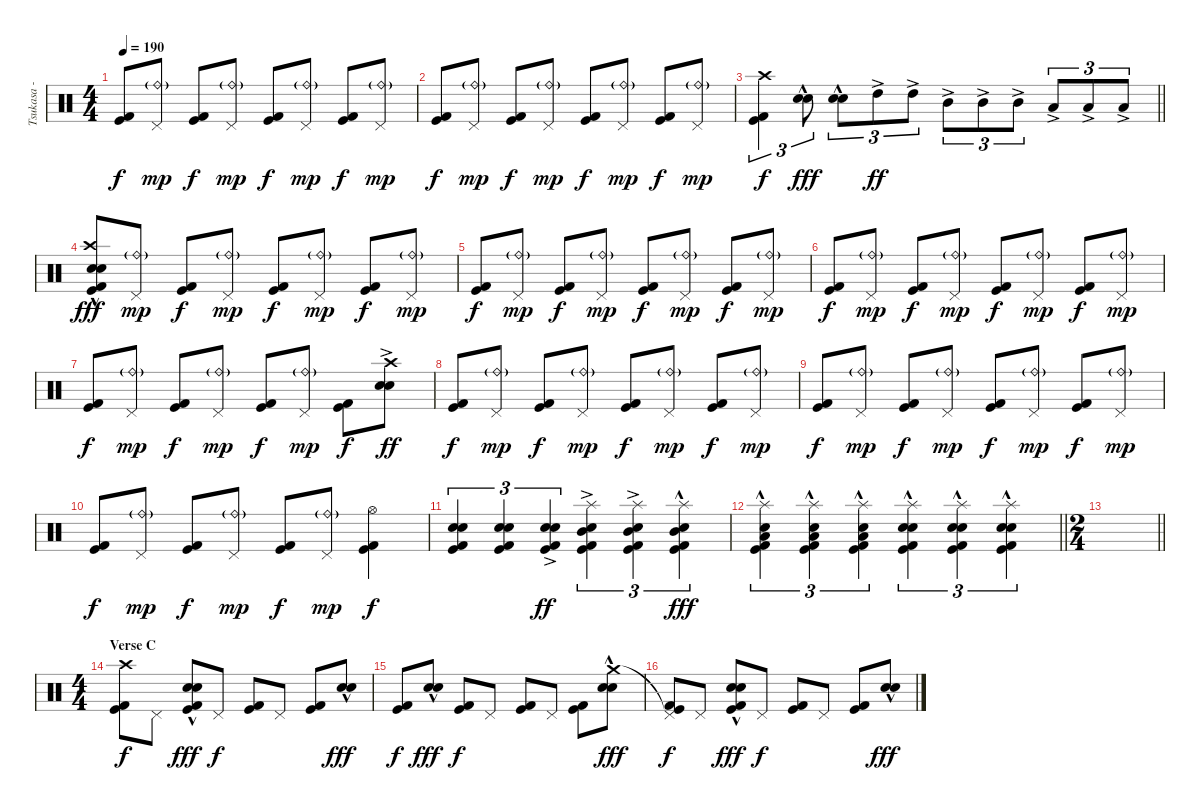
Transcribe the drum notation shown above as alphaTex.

\track ("Tsukasa - Drums" "Tsukasa - ") {instrument percussion}
\staff {score}
\articulation defaults
\ts (4 4)
\tempo 190
\clef neutral
\ks c
("Kick (hit)" "Kick (hit) 2").8{dy f} ("Ride (bell)"{g} "Pedal Hi-Hat (hit)").8{dy mp} ("Kick (hit)" "Kick (hit) 2").8{dy f} ("Ride (bell)"{g} "Pedal Hi-Hat (hit)").8{dy mp} ("Kick (hit)" "Kick (hit) 2").8{dy f} ("Ride (bell)"{g} "Pedal Hi-Hat (hit)").8{dy mp} ("Kick (hit)" "Kick (hit) 2").8{dy f} ("Ride (bell)"{g} "Pedal Hi-Hat (hit)").8{dy mp} |
("Kick (hit)" "Kick (hit) 2").8{dy f} ("Ride (bell)"{g} "Pedal Hi-Hat (hit)").8{dy mp} ("Kick (hit)" "Kick (hit) 2").8{dy f} ("Ride (bell)"{g} "Pedal Hi-Hat (hit)").8{dy mp} ("Kick (hit)" "Kick (hit) 2").8{dy f} ("Ride (bell)"{g} "Pedal Hi-Hat (hit)").8{dy mp} ("Kick (hit)" "Kick (hit) 2").8{dy f} ("Ride (bell)"{g} "Pedal Hi-Hat (hit)").8{dy mp} |
\barLineRight lightlight
("Crash high (hit)" "Kick (hit)" "Kick (hit) 2").4{tu (3 2) dy f} ("Electric Snare (hit)"{hac} "Snare (hit) 2").8{tu (3 2) dy fff} ("Electric Snare (hit)"{hac} "Snare (hit) 2").8{tu (3 2)} "High Tom (hit)"{ac}.8{tu (3 2) dy ff} "High Tom (hit)"{ac}.8{tu (3 2)} "Mid Tom (hit)"{ac}.8{tu (3 2)} "Mid Tom (hit)"{ac}.8{tu (3 2)} "Mid Tom (hit)"{ac}.8{tu (3 2)} "Low Tom (hit)"{ac}.8{tu (3 2)} "Low Tom (hit)"{ac}.8{tu (3 2)} "Low Tom (hit)"{ac}.8{tu (3 2)} |
\section ("" "")
("Crash high (hit)" "Electric Snare (hit)"{hac} "Snare (hit) 2" "Kick (hit)" "Kick (hit) 2").8{dy fff} ("Ride (bell)"{g} "Pedal Hi-Hat (hit)").8{dy mp} ("Kick (hit)" "Kick (hit) 2").8{dy f} ("Ride (bell)"{g} "Pedal Hi-Hat (hit)").8{dy mp} ("Kick (hit)" "Kick (hit) 2").8{dy f} ("Ride (bell)"{g} "Pedal Hi-Hat (hit)").8{dy mp} ("Kick (hit)" "Kick (hit) 2").8{dy f} ("Ride (bell)"{g} "Pedal Hi-Hat (hit)").8{dy mp} |
("Kick (hit)" "Kick (hit) 2").8{dy f} ("Ride (bell)"{g} "Pedal Hi-Hat (hit)").8{dy mp} ("Kick (hit)" "Kick (hit) 2").8{dy f} ("Ride (bell)"{g} "Pedal Hi-Hat (hit)").8{dy mp} ("Kick (hit)" "Kick (hit) 2").8{dy f} ("Ride (bell)"{g} "Pedal Hi-Hat (hit)").8{dy mp} ("Kick (hit)" "Kick (hit) 2").8{dy f} ("Ride (bell)"{g} "Pedal Hi-Hat (hit)").8{dy mp} |
("Kick (hit)" "Kick (hit) 2").8{dy f} ("Ride (bell)"{g} "Pedal Hi-Hat (hit)").8{dy mp} ("Kick (hit)" "Kick (hit) 2").8{dy f} ("Ride (bell)"{g} "Pedal Hi-Hat (hit)").8{dy mp} ("Kick (hit)" "Kick (hit) 2").8{dy f} ("Ride (bell)"{g} "Pedal Hi-Hat (hit)").8{dy mp} ("Kick (hit)" "Kick (hit) 2").8{dy f} ("Ride (bell)"{g} "Pedal Hi-Hat (hit)").8{dy mp} |
("Kick (hit)" "Kick (hit) 2").8{dy f} ("Ride (bell)"{g} "Pedal Hi-Hat (hit)").8{dy mp} ("Kick (hit)" "Kick (hit) 2").8{dy f} ("Ride (bell)"{g} "Pedal Hi-Hat (hit)").8{dy mp} ("Kick (hit)" "Kick (hit) 2").8{dy f} ("Ride (bell)"{g} "Pedal Hi-Hat (hit)").8{dy mp} ("Kick (hit)" "Kick (hit) 2").8{dy f} ("Crash high (hit)" "Electric Snare (hit)"{ac} "Snare (hit) 2").8{dy ff} |
("Kick (hit)" "Kick (hit) 2").8{dy f} ("Ride (bell)"{g} "Pedal Hi-Hat (hit)").8{dy mp} ("Kick (hit)" "Kick (hit) 2").8{dy f} ("Ride (bell)"{g} "Pedal Hi-Hat (hit)").8{dy mp} ("Kick (hit)" "Kick (hit) 2").8{dy f} ("Ride (bell)"{g} "Pedal Hi-Hat (hit)").8{dy mp} ("Kick (hit)" "Kick (hit) 2").8{dy f} ("Ride (bell)"{g} "Pedal Hi-Hat (hit)").8{dy mp} |
("Kick (hit)" "Kick (hit) 2").8{dy f} ("Ride (bell)"{g} "Pedal Hi-Hat (hit)").8{dy mp} ("Kick (hit)" "Kick (hit) 2").8{dy f} ("Ride (bell)"{g} "Pedal Hi-Hat (hit)").8{dy mp} ("Kick (hit)" "Kick (hit) 2").8{dy f} ("Ride (bell)"{g} "Pedal Hi-Hat (hit)").8{dy mp} ("Kick (hit)" "Kick (hit) 2").8{dy f} ("Ride (bell)"{g} "Pedal Hi-Hat (hit)").8{dy mp} |
("Kick (hit)" "Kick (hit) 2").8{dy f} ("Ride (bell)"{g} "Pedal Hi-Hat (hit)").8{dy mp} ("Kick (hit)" "Kick (hit) 2").8{dy f} ("Ride (bell)"{g} "Pedal Hi-Hat (hit)").8{dy mp} ("Kick (hit)" "Kick (hit) 2").8{dy f} ("Ride (bell)"{g} "Pedal Hi-Hat (hit)").8{dy mp} ("Hi-Hat (open)" "Kick (hit)" "Kick (hit) 2").4{dy f} |
("Electric Snare (hit)" "Snare (hit) 2" "Kick (hit)" "Kick (hit) 2").4{tu (3 2)} ("Electric Snare (hit)" "Snare (hit) 2" "Kick (hit)" "Kick (hit) 2").4{tu (3 2)} ("Electric Snare (hit)"{ac} "Snare (hit) 2" "Kick (hit)" "Kick (hit) 2").4{tu (3 2) dy ff} ("Splash (hit)" "Electric Snare (hit)"{ac} "Mid Tom (hit)" "Kick (hit)" "Kick (hit) 2").4{tu (3 2)} ("Splash (hit)"{ac} "Electric Snare (hit)"{ac} "Mid Tom (hit)" "Kick (hit)" "Kick (hit) 2").4{tu (3 2)} ("Splash (hit)"{hac} "Electric Snare (hit)"{hac} "Mid Tom (hit)" "Kick (hit)" "Kick (hit) 2").4{tu (3 2) dy fff} |
\barLineRight lightlight
("Splash (hit)"{hac} "Electric Snare (hit)"{hac} "Low Tom (hit)" "Kick (hit)" "Kick (hit) 2").4{tu (3 2)} ("Splash (hit)"{hac} "Electric Snare (hit)"{hac} "Low Tom (hit)" "Kick (hit)" "Kick (hit) 2").4{tu (3 2)} ("Splash (hit)"{hac} "Electric Snare (hit)"{hac} "Low Tom (hit)" "Kick (hit)" "Kick (hit) 2").4{tu (3 2)} ("Splash (hit)"{hac} "Electric Snare (hit)"{hac} "Snare (hit) 2" "Kick (hit)" "Kick (hit) 2").4{tu (3 2)} ("Splash (hit)"{hac} "Electric Snare (hit)"{hac} "Snare (hit) 2" "Kick (hit)" "Kick (hit) 2").4{tu (3 2)} ("Splash (hit)"{hac} "Electric Snare (hit)"{hac} "Snare (hit) 2" "Kick (hit)" "Kick (hit) 2").4{tu (3 2)} |
\ts (2 4)
\barLineRight lightlight
|
\ts (4 4)
\section ("" "Verse C")
("Crash high (hit)" "Kick (hit)" "Kick (hit) 2").8{dy f} "Pedal Hi-Hat (hit)".8 ("Electric Snare (hit)"{hac} "Snare (hit) 2" "Kick (hit)" "Kick (hit) 2").8{dy fff} "Pedal Hi-Hat (hit)".8{dy f} ("Kick (hit)" "Kick (hit) 2").8 "Pedal Hi-Hat (hit)".8 ("Kick (hit)" "Kick (hit) 2").8 ("Electric Snare (hit)"{hac} "Snare (hit) 2").8{dy fff} |
("Kick (hit)" "Kick (hit) 2").8{dy f} ("Electric Snare (hit)"{hac} "Snare (hit) 2").8{dy fff} ("Kick (hit)" "Kick (hit) 2").8{dy f} "Pedal Hi-Hat (hit)".8 ("Kick (hit)" "Kick (hit) 2").8 "Pedal Hi-Hat (hit)".8 ("Kick (hit)" "Kick (hit) 2").8 ("Crash medium (hit)" "Electric Snare (hit)"{hac} "Snare (hit) 2").8{dy fff} |
("Pedal Hi-Hat (hit)"{t} "Kick (hit)" "Kick (hit) 2").8{dy f} "Pedal Hi-Hat (hit)".8 ("Electric Snare (hit)"{hac} "Snare (hit) 2" "Kick (hit)" "Kick (hit) 2").8{dy fff} "Pedal Hi-Hat (hit)".8{dy f} ("Kick (hit)" "Kick (hit) 2").8 "Pedal Hi-Hat (hit)".8 ("Kick (hit)" "Kick (hit) 2").8 ("Electric Snare (hit)"{hac} "Snare (hit) 2").8{dy fff}
